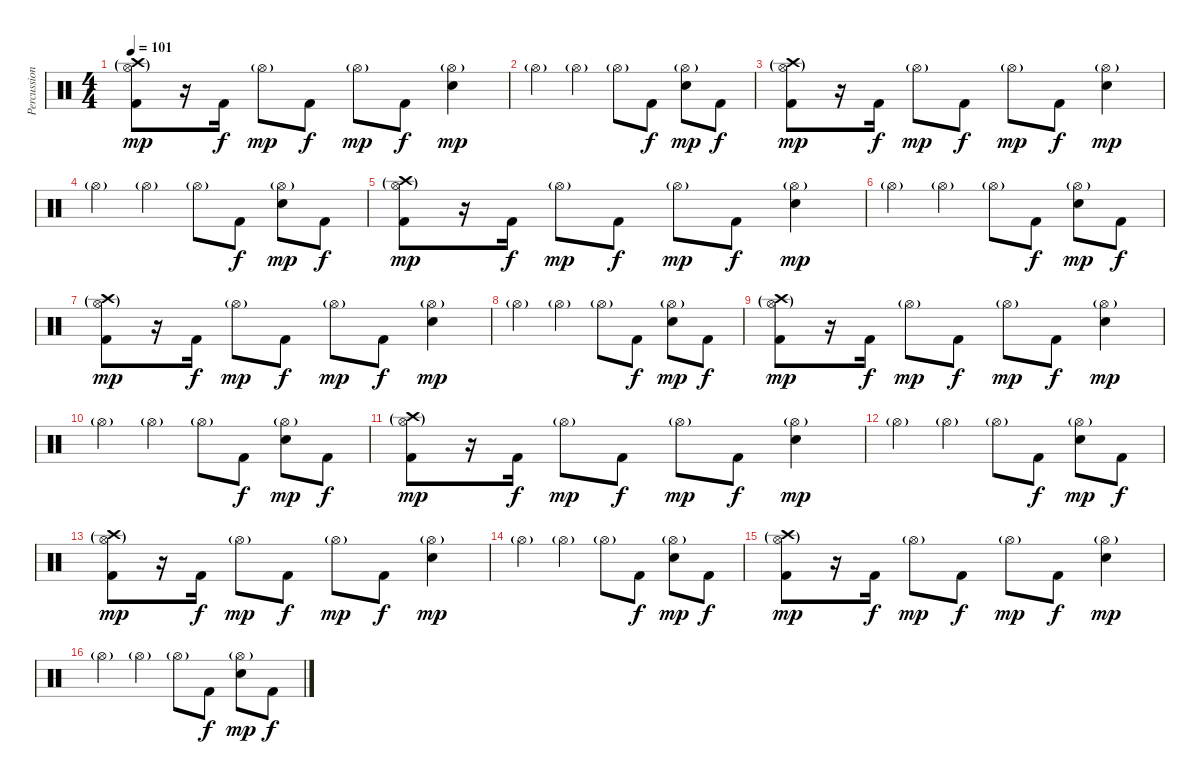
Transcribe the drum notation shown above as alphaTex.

\track ("Percussion" "Percussion") {instrument percussion}
\staff {score}
\articulation defaults
\ts (4 4)
\tempo 101
\clef neutral
\ks c
("Crash high (hit)"{g} "Hi-Hat (open)"{g} "Kick (hit) 2").8{dy mp} r.16 "Kick (hit) 2".16{dy f} "Hi-Hat (open)"{g}.8{dy mp} "Kick (hit) 2".8{dy f} "Hi-Hat (open)"{g}.8{dy mp} "Kick (hit) 2".8{dy f} ("Electric Snare (hit)" "Hi-Hat (open)"{g}).4{dy mp} |
"Hi-Hat (open)"{g}.4 "Hi-Hat (open)"{g}.4 "Hi-Hat (open)"{g}.8 "Kick (hit) 2".8{dy f} ("Electric Snare (hit)" "Hi-Hat (open)"{g}).8{dy mp} "Kick (hit) 2".8{dy f} |
("Crash high (hit)"{g} "Hi-Hat (open)"{g} "Kick (hit) 2").8{dy mp} r.16 "Kick (hit) 2".16{dy f} "Hi-Hat (open)"{g}.8{dy mp} "Kick (hit) 2".8{dy f} "Hi-Hat (open)"{g}.8{dy mp} "Kick (hit) 2".8{dy f} ("Electric Snare (hit)" "Hi-Hat (open)"{g}).4{dy mp} |
"Hi-Hat (open)"{g}.4 "Hi-Hat (open)"{g}.4 "Hi-Hat (open)"{g}.8 "Kick (hit) 2".8{dy f} ("Electric Snare (hit)" "Hi-Hat (open)"{g}).8{dy mp} "Kick (hit) 2".8{dy f} |
("Crash high (hit)"{g} "Hi-Hat (open)"{g} "Kick (hit) 2").8{dy mp} r.16 "Kick (hit) 2".16{dy f} "Hi-Hat (open)"{g}.8{dy mp} "Kick (hit) 2".8{dy f} "Hi-Hat (open)"{g}.8{dy mp} "Kick (hit) 2".8{dy f} ("Electric Snare (hit)" "Hi-Hat (open)"{g}).4{dy mp} |
"Hi-Hat (open)"{g}.4 "Hi-Hat (open)"{g}.4 "Hi-Hat (open)"{g}.8 "Kick (hit) 2".8{dy f} ("Electric Snare (hit)" "Hi-Hat (open)"{g}).8{dy mp} "Kick (hit) 2".8{dy f} |
("Crash high (hit)"{g} "Hi-Hat (open)"{g} "Kick (hit) 2").8{dy mp} r.16 "Kick (hit) 2".16{dy f} "Hi-Hat (open)"{g}.8{dy mp} "Kick (hit) 2".8{dy f} "Hi-Hat (open)"{g}.8{dy mp} "Kick (hit) 2".8{dy f} ("Electric Snare (hit)" "Hi-Hat (open)"{g}).4{dy mp} |
"Hi-Hat (open)"{g}.4 "Hi-Hat (open)"{g}.4 "Hi-Hat (open)"{g}.8 "Kick (hit) 2".8{dy f} ("Electric Snare (hit)" "Hi-Hat (open)"{g}).8{dy mp} "Kick (hit) 2".8{dy f} |
("Crash high (hit)"{g} "Hi-Hat (open)"{g} "Kick (hit) 2").8{dy mp} r.16 "Kick (hit) 2".16{dy f} "Hi-Hat (open)"{g}.8{dy mp} "Kick (hit) 2".8{dy f} "Hi-Hat (open)"{g}.8{dy mp} "Kick (hit) 2".8{dy f} ("Electric Snare (hit)" "Hi-Hat (open)"{g}).4{dy mp} |
"Hi-Hat (open)"{g}.4 "Hi-Hat (open)"{g}.4 "Hi-Hat (open)"{g}.8 "Kick (hit) 2".8{dy f} ("Electric Snare (hit)" "Hi-Hat (open)"{g}).8{dy mp} "Kick (hit) 2".8{dy f} |
("Crash high (hit)"{g} "Hi-Hat (open)"{g} "Kick (hit) 2").8{dy mp} r.16 "Kick (hit) 2".16{dy f} "Hi-Hat (open)"{g}.8{dy mp} "Kick (hit) 2".8{dy f} "Hi-Hat (open)"{g}.8{dy mp} "Kick (hit) 2".8{dy f} ("Electric Snare (hit)" "Hi-Hat (open)"{g}).4{dy mp} |
"Hi-Hat (open)"{g}.4 "Hi-Hat (open)"{g}.4 "Hi-Hat (open)"{g}.8 "Kick (hit) 2".8{dy f} ("Electric Snare (hit)" "Hi-Hat (open)"{g}).8{dy mp} "Kick (hit) 2".8{dy f} |
("Crash high (hit)"{g} "Hi-Hat (open)"{g} "Kick (hit) 2").8{dy mp} r.16 "Kick (hit) 2".16{dy f} "Hi-Hat (open)"{g}.8{dy mp} "Kick (hit) 2".8{dy f} "Hi-Hat (open)"{g}.8{dy mp} "Kick (hit) 2".8{dy f} ("Electric Snare (hit)" "Hi-Hat (open)"{g}).4{dy mp} |
"Hi-Hat (open)"{g}.4 "Hi-Hat (open)"{g}.4 "Hi-Hat (open)"{g}.8 "Kick (hit) 2".8{dy f} ("Electric Snare (hit)" "Hi-Hat (open)"{g}).8{dy mp} "Kick (hit) 2".8{dy f} |
("Crash high (hit)"{g} "Hi-Hat (open)"{g} "Kick (hit) 2").8{dy mp} r.16 "Kick (hit) 2".16{dy f} "Hi-Hat (open)"{g}.8{dy mp} "Kick (hit) 2".8{dy f} "Hi-Hat (open)"{g}.8{dy mp} "Kick (hit) 2".8{dy f} ("Electric Snare (hit)" "Hi-Hat (open)"{g}).4{dy mp} |
"Hi-Hat (open)"{g}.4 "Hi-Hat (open)"{g}.4 "Hi-Hat (open)"{g}.8 "Kick (hit) 2".8{dy f} ("Electric Snare (hit)" "Hi-Hat (open)"{g}).8{dy mp} "Kick (hit) 2".8{dy f}
